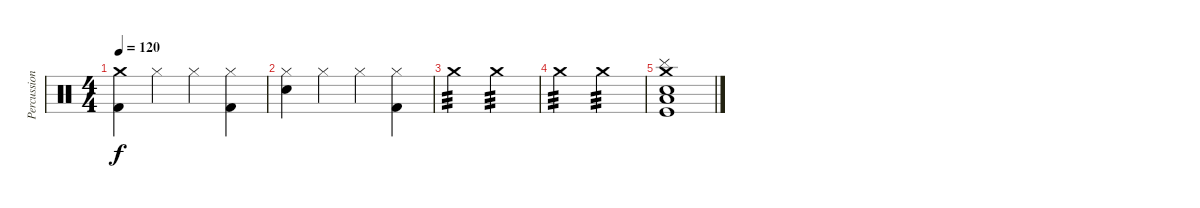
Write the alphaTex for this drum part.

\track ("Percussion" "Percussion") {instrument percussion}
\staff {score}
\articulation defaults
\ts (4 4)
\tempo 120
\clef neutral
\ks c
("Crash medium (hit)" "Kick (hit) 2").4{dy f} "Hi-Hat (closed)".4 "Hi-Hat (closed)".4 ("Hi-Hat (closed)" "Kick (hit) 2").4 |
("Hi-Hat (closed)" "Snare (hit) 2").4 "Hi-Hat (closed)".4 "Hi-Hat (closed)".4 ("Hi-Hat (closed)" "Kick (hit) 2").4 |
"Crash medium (hit)".2{tp 3 volume 5} "Crash medium (hit)".2{tp 3 volume 8} |
"Crash medium (hit)".2{tp 3 volume 10} "Crash medium (hit)".2{tp 3 volume 16} |
("Crash medium (hit)" "Low Tom (hit)" "Cymbal (hit)" "Kick (hit)" "Electric Snare (hit)").1
